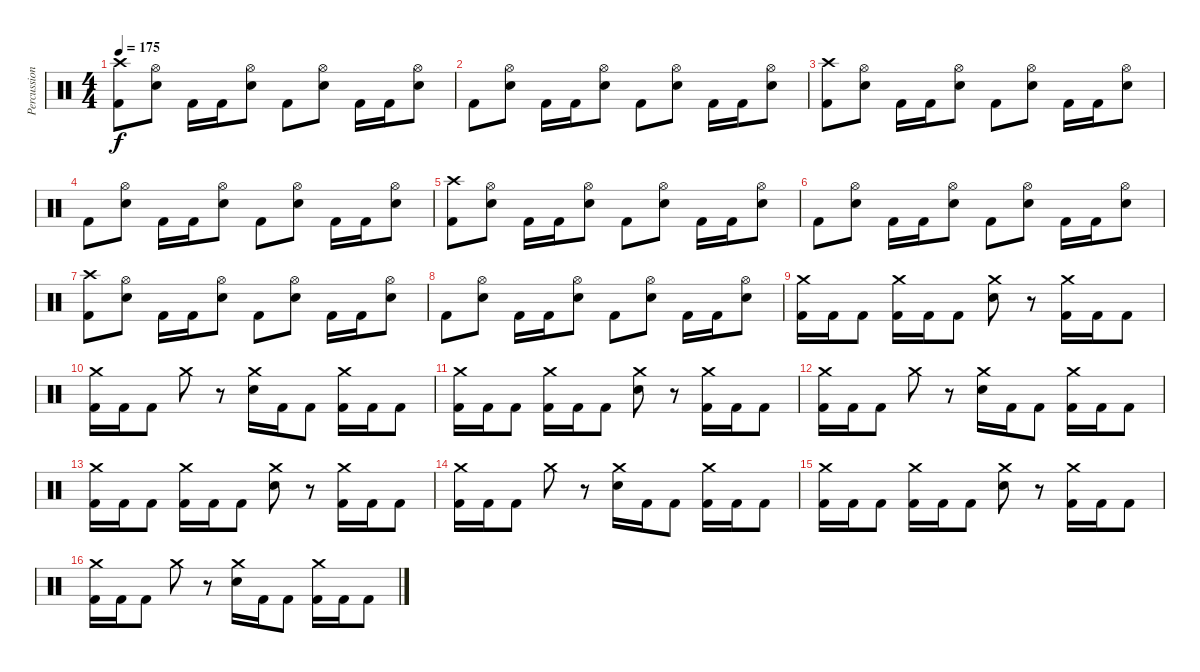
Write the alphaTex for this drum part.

\track ("Percussion" "Percussion") {instrument percussion}
\staff {score}
\articulation defaults
\ts (4 4)
\tempo 175
\clef neutral
\ks c
("Crash high (hit)" "Kick (hit) 2").8{dy f} ("Hi-Hat (open)" "Electric Snare (hit)").8 "Kick (hit) 2".16 "Kick (hit) 2".16 ("Hi-Hat (open)" "Electric Snare (hit)").8 "Kick (hit) 2".8 ("Hi-Hat (open)" "Electric Snare (hit)").8 "Kick (hit) 2".16 "Kick (hit) 2".16 ("Hi-Hat (open)" "Electric Snare (hit)").8 |
"Kick (hit) 2".8 ("Hi-Hat (open)" "Electric Snare (hit)").8 "Kick (hit) 2".16 "Kick (hit) 2".16 ("Hi-Hat (open)" "Electric Snare (hit)").8 "Kick (hit) 2".8 ("Hi-Hat (open)" "Electric Snare (hit)").8 "Kick (hit) 2".16 "Kick (hit) 2".16 ("Hi-Hat (open)" "Electric Snare (hit)").8 |
("Crash high (hit)" "Kick (hit) 2").8 ("Hi-Hat (open)" "Electric Snare (hit)").8 "Kick (hit) 2".16 "Kick (hit) 2".16 ("Hi-Hat (open)" "Electric Snare (hit)").8 "Kick (hit) 2".8 ("Hi-Hat (open)" "Electric Snare (hit)").8 "Kick (hit) 2".16 "Kick (hit) 2".16 ("Hi-Hat (open)" "Electric Snare (hit)").8 |
"Kick (hit) 2".8 ("Hi-Hat (open)" "Electric Snare (hit)").8 "Kick (hit) 2".16 "Kick (hit) 2".16 ("Hi-Hat (open)" "Electric Snare (hit)").8 "Kick (hit) 2".8 ("Hi-Hat (open)" "Electric Snare (hit)").8 "Kick (hit) 2".16 "Kick (hit) 2".16 ("Hi-Hat (open)" "Electric Snare (hit)").8 |
("Crash high (hit)" "Kick (hit) 2").8 ("Hi-Hat (open)" "Electric Snare (hit)").8 "Kick (hit) 2".16 "Kick (hit) 2".16 ("Hi-Hat (open)" "Electric Snare (hit)").8 "Kick (hit) 2".8 ("Hi-Hat (open)" "Electric Snare (hit)").8 "Kick (hit) 2".16 "Kick (hit) 2".16 ("Hi-Hat (open)" "Electric Snare (hit)").8 |
"Kick (hit) 2".8 ("Hi-Hat (open)" "Electric Snare (hit)").8 "Kick (hit) 2".16 "Kick (hit) 2".16 ("Hi-Hat (open)" "Electric Snare (hit)").8 "Kick (hit) 2".8 ("Hi-Hat (open)" "Electric Snare (hit)").8 "Kick (hit) 2".16 "Kick (hit) 2".16 ("Hi-Hat (open)" "Electric Snare (hit)").8 |
("Crash high (hit)" "Kick (hit) 2").8 ("Hi-Hat (open)" "Electric Snare (hit)").8 "Kick (hit) 2".16 "Kick (hit) 2".16 ("Hi-Hat (open)" "Electric Snare (hit)").8 "Kick (hit) 2".8 ("Hi-Hat (open)" "Electric Snare (hit)").8 "Kick (hit) 2".16 "Kick (hit) 2".16 ("Hi-Hat (open)" "Electric Snare (hit)").8 |
"Kick (hit) 2".8 ("Hi-Hat (open)" "Electric Snare (hit)").8 "Kick (hit) 2".16 "Kick (hit) 2".16 ("Hi-Hat (open)" "Electric Snare (hit)").8 "Kick (hit) 2".8 ("Hi-Hat (open)" "Electric Snare (hit)").8 "Kick (hit) 2".16 "Kick (hit) 2".16 ("Hi-Hat (open)" "Electric Snare (hit)").8 |
("Crash medium (hit)" "Kick (hit) 2").16 "Kick (hit) 2".16 "Kick (hit) 2".8 ("Crash medium (hit)" "Kick (hit) 2").16 "Kick (hit) 2".16 "Kick (hit) 2".8 ("Crash medium (hit)" "Electric Snare (hit)").8 r.8 ("Crash medium (hit)" "Kick (hit) 2").16 "Kick (hit) 2".16 "Kick (hit) 2".8 |
("Crash medium (hit)" "Kick (hit) 2").16 "Kick (hit) 2".16 "Kick (hit) 2".8 "Crash medium (hit)".8 r.8 ("Crash medium (hit)" "Electric Snare (hit)").16 "Kick (hit) 2".16 "Kick (hit) 2".8 ("Crash medium (hit)" "Kick (hit) 2").16 "Kick (hit) 2".16 "Kick (hit) 2".8 |
("Crash medium (hit)" "Kick (hit) 2").16 "Kick (hit) 2".16 "Kick (hit) 2".8 ("Crash medium (hit)" "Kick (hit) 2").16 "Kick (hit) 2".16 "Kick (hit) 2".8 ("Crash medium (hit)" "Electric Snare (hit)").8 r.8 ("Crash medium (hit)" "Kick (hit) 2").16 "Kick (hit) 2".16 "Kick (hit) 2".8 |
("Crash medium (hit)" "Kick (hit) 2").16 "Kick (hit) 2".16 "Kick (hit) 2".8 "Crash medium (hit)".8 r.8 ("Crash medium (hit)" "Electric Snare (hit)").16 "Kick (hit) 2".16 "Kick (hit) 2".8 ("Crash medium (hit)" "Kick (hit) 2").16 "Kick (hit) 2".16 "Kick (hit) 2".8 |
("Crash medium (hit)" "Kick (hit) 2").16 "Kick (hit) 2".16 "Kick (hit) 2".8 ("Crash medium (hit)" "Kick (hit) 2").16 "Kick (hit) 2".16 "Kick (hit) 2".8 ("Crash medium (hit)" "Electric Snare (hit)").8 r.8 ("Crash medium (hit)" "Kick (hit) 2").16 "Kick (hit) 2".16 "Kick (hit) 2".8 |
("Crash medium (hit)" "Kick (hit) 2").16 "Kick (hit) 2".16 "Kick (hit) 2".8 "Crash medium (hit)".8 r.8 ("Crash medium (hit)" "Electric Snare (hit)").16 "Kick (hit) 2".16 "Kick (hit) 2".8 ("Crash medium (hit)" "Kick (hit) 2").16 "Kick (hit) 2".16 "Kick (hit) 2".8 |
("Crash medium (hit)" "Kick (hit) 2").16 "Kick (hit) 2".16 "Kick (hit) 2".8 ("Crash medium (hit)" "Kick (hit) 2").16 "Kick (hit) 2".16 "Kick (hit) 2".8 ("Crash medium (hit)" "Electric Snare (hit)").8 r.8 ("Crash medium (hit)" "Kick (hit) 2").16 "Kick (hit) 2".16 "Kick (hit) 2".8 |
("Crash medium (hit)" "Kick (hit) 2").16 "Kick (hit) 2".16 "Kick (hit) 2".8 "Crash medium (hit)".8 r.8 ("Crash medium (hit)" "Electric Snare (hit)").16 "Kick (hit) 2".16 "Kick (hit) 2".8 ("Crash medium (hit)" "Kick (hit) 2").16 "Kick (hit) 2".16 "Kick (hit) 2".8
